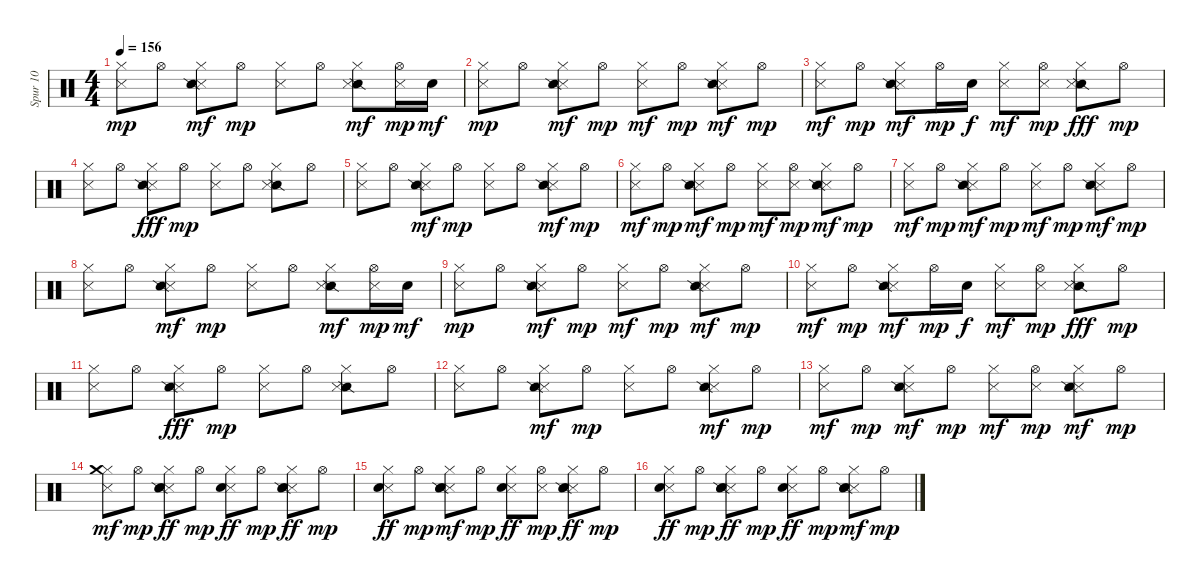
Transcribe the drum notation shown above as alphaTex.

\track ("Spur 10" "Spur 10") {instrument percussion}
\staff {score}
\articulation defaults
\ts (4 4)
\tempo 156
\clef neutral
\ks c
("Metronome (hit)" "Hi-Hat (closed)").8{dy mp} "Hi-Hat (open)".8 ("Metronome (hit)" "Snare (side stick) 2" "Hi-Hat (closed)").8{dy mf} "Hi-Hat (open)".8{dy mp} ("Metronome (hit)" "Hi-Hat (closed)").8 "Hi-Hat (open)".8 ("Snare (side stick) 2" "Metronome (hit)" "Hi-Hat (closed)").8{dy mf} ("Metronome (hit)" "Hi-Hat (open)").16{dy mp} "Electric Snare (hit)".16{dy mf} |
("Metronome (hit)" "Hi-Hat (closed)").8{dy mp} "Hi-Hat (open)".8 ("Metronome (hit)" "Snare (side stick) 2" "Hi-Hat (closed)").8{dy mf} "Hi-Hat (open)".8{dy mp} ("Metronome (hit)" "Hi-Hat (closed)").8{dy mf} "Hi-Hat (open)".8{dy mp} ("Metronome (hit)" "Snare (side stick) 2" "Hi-Hat (closed)").8{dy mf} "Hi-Hat (open)".8{dy mp} |
("Metronome (hit)" "Hi-Hat (closed)").8{dy mf} "Hi-Hat (open)".8{dy mp} ("Metronome (hit)" "Snare (side stick) 2" "Hi-Hat (closed)").8{dy mf} "Hi-Hat (open)".16{dy mp} "Electric Snare (hit)".16{dy f} ("Metronome (hit)" "Hi-Hat (closed)").8{dy mf} ("Metronome (hit)" "Hi-Hat (open)").8{dy mp} ("Snare (side stick) 2" "Metronome (hit)" "Hi-Hat (closed)").8{dy fff} "Hi-Hat (open)".8{dy mp} |
("Metronome (hit)" "Hi-Hat (closed)").8 "Hi-Hat (open)".8 ("Metronome (hit)" "Snare (side stick) 2" "Hi-Hat (closed)").8{dy fff} "Hi-Hat (open)".8{dy mp} ("Metronome (hit)" "Hi-Hat (closed)").8 "Hi-Hat (open)".8 ("Snare (side stick) 2" "Metronome (hit)" "Hi-Hat (closed)").8 "Hi-Hat (open)".8 |
("Metronome (hit)" "Hi-Hat (closed)").8 "Hi-Hat (open)".8 ("Metronome (hit)" "Snare (side stick) 2" "Hi-Hat (closed)").8{dy mf} "Hi-Hat (open)".8{dy mp} ("Metronome (hit)" "Hi-Hat (closed)").8 "Hi-Hat (open)".8 ("Metronome (hit)" "Snare (side stick) 2" "Hi-Hat (closed)").8{dy mf} "Hi-Hat (open)".8{dy mp} |
("Metronome (hit)" "Hi-Hat (closed)").8{dy mf} "Hi-Hat (open)".8{dy mp} ("Metronome (hit)" "Snare (side stick) 2" "Hi-Hat (closed)").8{dy mf} "Hi-Hat (open)".8{dy mp} ("Metronome (hit)" "Hi-Hat (closed)").8{dy mf} ("Metronome (hit)" "Hi-Hat (open)").8{dy mp} ("Metronome (hit)" "Snare (side stick) 2" "Hi-Hat (closed)").8{dy mf} "Hi-Hat (open)".8{dy mp} |
("Metronome (hit)" "Hi-Hat (closed)").8{dy mf} "Hi-Hat (open)".8{dy mp} ("Metronome (hit)" "Snare (side stick) 2" "Hi-Hat (closed)").8{dy mf} "Hi-Hat (open)".8{dy mp} ("Metronome (hit)" "Hi-Hat (closed)").8{dy mf} "Hi-Hat (open)".8{dy mp} ("Metronome (hit)" "Snare (side stick) 2" "Hi-Hat (closed)").8{dy mf} "Hi-Hat (open)".8{dy mp} |
("Metronome (hit)" "Hi-Hat (closed)").8 "Hi-Hat (open)".8 ("Metronome (hit)" "Snare (side stick) 2" "Hi-Hat (closed)").8{dy mf} "Hi-Hat (open)".8{dy mp} ("Metronome (hit)" "Hi-Hat (closed)").8 "Hi-Hat (open)".8 ("Snare (side stick) 2" "Metronome (hit)" "Hi-Hat (closed)").8{dy mf} ("Metronome (hit)" "Hi-Hat (open)").16{dy mp} "Electric Snare (hit)".16{dy mf} |
("Metronome (hit)" "Hi-Hat (closed)").8{dy mp} "Hi-Hat (open)".8 ("Metronome (hit)" "Snare (side stick) 2" "Hi-Hat (closed)").8{dy mf} "Hi-Hat (open)".8{dy mp} ("Metronome (hit)" "Hi-Hat (closed)").8{dy mf} "Hi-Hat (open)".8{dy mp} ("Metronome (hit)" "Snare (side stick) 2" "Hi-Hat (closed)").8{dy mf} "Hi-Hat (open)".8{dy mp} |
("Metronome (hit)" "Hi-Hat (closed)").8{dy mf} "Hi-Hat (open)".8{dy mp} ("Metronome (hit)" "Snare (side stick) 2" "Hi-Hat (closed)").8{dy mf} "Hi-Hat (open)".16{dy mp} "Electric Snare (hit)".16{dy f} ("Metronome (hit)" "Hi-Hat (closed)").8{dy mf} ("Metronome (hit)" "Hi-Hat (open)").8{dy mp} ("Snare (side stick) 2" "Metronome (hit)" "Hi-Hat (closed)").8{dy fff} "Hi-Hat (open)".8{dy mp} |
("Metronome (hit)" "Hi-Hat (closed)").8 "Hi-Hat (open)".8 ("Metronome (hit)" "Snare (side stick) 2" "Hi-Hat (closed)").8{dy fff} "Hi-Hat (open)".8{dy mp} ("Metronome (hit)" "Hi-Hat (closed)").8 "Hi-Hat (open)".8 ("Snare (side stick) 2" "Metronome (hit)" "Hi-Hat (closed)").8 "Hi-Hat (open)".8 |
("Metronome (hit)" "Hi-Hat (closed)").8 "Hi-Hat (open)".8 ("Metronome (hit)" "Snare (side stick) 2" "Hi-Hat (closed)").8{dy mf} "Hi-Hat (open)".8{dy mp} ("Metronome (hit)" "Hi-Hat (closed)").8 "Hi-Hat (open)".8 ("Metronome (hit)" "Snare (side stick) 2" "Hi-Hat (closed)").8{dy mf} "Hi-Hat (open)".8{dy mp} |
("Metronome (hit)" "Hi-Hat (closed)").8{dy mf} "Hi-Hat (open)".8{dy mp} ("Metronome (hit)" "Snare (side stick) 2" "Hi-Hat (closed)").8{dy mf} "Hi-Hat (open)".8{dy mp} ("Metronome (hit)" "Hi-Hat (closed)").8{dy mf} ("Metronome (hit)" "Hi-Hat (open)").8{dy mp} ("Metronome (hit)" "Snare (side stick) 2" "Hi-Hat (closed)").8{dy mf} "Hi-Hat (open)".8{dy mp} |
("Metronome (hit)" "Hi-Hat (closed)" "Crash medium (hit)").8{dy mf} "Hi-Hat (open)".8{dy mp} ("Metronome (hit)" "Snare (side stick) 2" "Hi-Hat (closed)" "Snare (hit) 2").8{dy ff} "Hi-Hat (open)".8{dy mp} ("Metronome (hit)" "Hi-Hat (closed)" "Snare (hit) 2").8{dy ff} "Hi-Hat (open)".8{dy mp} ("Metronome (hit)" "Snare (side stick) 2" "Hi-Hat (closed)" "Snare (hit) 2").8{dy ff} "Hi-Hat (open)".8{dy mp} |
("Metronome (hit)" "Hi-Hat (closed)" "Snare (hit) 2").8{dy ff} "Hi-Hat (open)".8{dy mp} ("Metronome (hit)" "Snare (side stick) 2" "Hi-Hat (closed)" "Snare (hit) 2").8{dy mf} "Hi-Hat (open)".8{dy mp} ("Metronome (hit)" "Hi-Hat (closed)" "Snare (hit) 2").8{dy ff} ("Metronome (hit)" "Hi-Hat (open)").8{dy mp} ("Metronome (hit)" "Snare (side stick) 2" "Hi-Hat (closed)" "Snare (hit) 2").8{dy ff} "Hi-Hat (open)".8{dy mp} |
("Metronome (hit)" "Hi-Hat (closed)" "Snare (hit) 2").8{dy ff} "Hi-Hat (open)".8{dy mp} ("Metronome (hit)" "Snare (side stick) 2" "Hi-Hat (closed)" "Snare (hit) 2").8{dy ff} "Hi-Hat (open)".8{dy mp} ("Metronome (hit)" "Hi-Hat (closed)" "Snare (hit) 2").8{dy ff} "Hi-Hat (open)".8{dy mp} ("Metronome (hit)" "Snare (side stick) 2" "Hi-Hat (closed)" "Snare (hit) 2").8{dy mf} "Hi-Hat (open)".8{dy mp}
